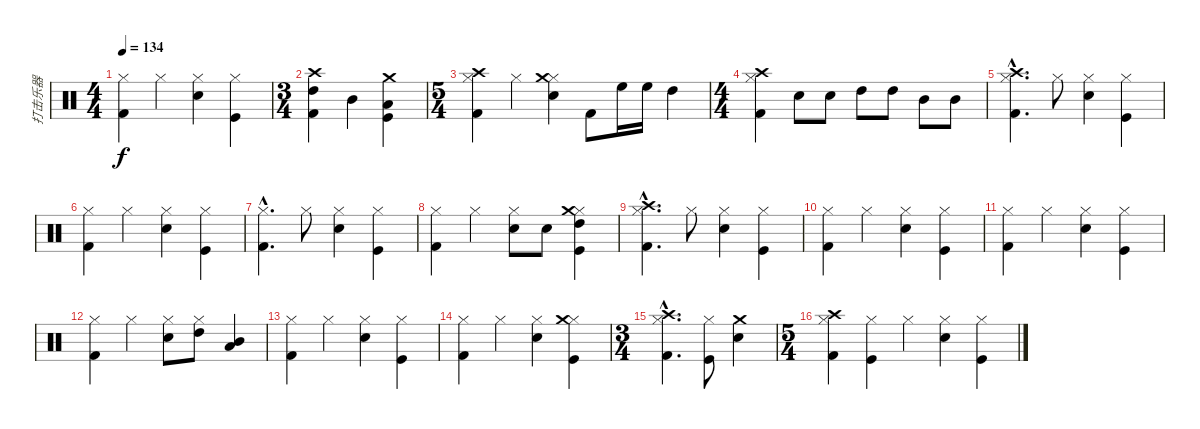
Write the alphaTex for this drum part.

\track ("打击乐器" "打击乐器") {instrument percussion}
\staff {score}
\articulation defaults
\ts (4 4)
\tempo 134
\clef neutral
\ks c
("Hi-Hat (closed)" "Kick (hit) 2").4{dy f} "Hi-Hat (closed)".4 ("Hi-Hat (closed)" "Snare (hit) 2").4 ("Kick (hit)" "Hi-Hat (closed)").4 |
\ts (3 4)
("High Tom (hit)" "Kick (hit) 2" "Crash high (hit)").4 "Mid Tom (hit)".4 ("Low Tom (hit)" "Kick (hit)" "Crash medium (hit)").4 |
\ts (5 4)
("Hi-Hat (closed)" "Kick (hit) 2" "Crash high (hit)").4 "Hi-Hat (closed)".4 ("Hi-Hat (closed)" "Snare (hit) 2" "Crash medium (hit)").4 "Kick (hit) 2".8 "High Floor Tom (hit)".16 "High Floor Tom (hit)".16 "High Tom (hit)".4 |
\ts (4 4)
("Hi-Hat (closed)" "Kick (hit) 2" "Crash high (hit)").4 "Snare (hit) 2".8 "Snare (hit) 2".8 "High Tom (hit)".8 "High Tom (hit)".8 "Mid Tom (hit)".8 "Mid Tom (hit)".8 |
("Kick (hit) 2"{hac} "Hi-Hat (closed)"{hac} "Crash high (hit)"{hac}).4{d} "Hi-Hat (closed)".8 ("Snare (hit) 2" "Hi-Hat (closed)").4 ("Hi-Hat (closed)" "Kick (hit)").4 |
("Hi-Hat (closed)" "Kick (hit) 2").4 "Hi-Hat (closed)".4 ("Hi-Hat (closed)" "Snare (hit) 2").4 ("Kick (hit)" "Hi-Hat (closed)").4 |
("Hi-Hat (closed)"{hac} "Kick (hit) 2"{hac}).4{d} "Hi-Hat (closed)".8 ("Hi-Hat (closed)" "Snare (hit) 2").4 ("Kick (hit)" "Hi-Hat (closed)").4 |
("Hi-Hat (closed)" "Kick (hit) 2").4 "Hi-Hat (closed)".4 ("Hi-Hat (closed)" "Snare (hit) 2").8 "Snare (hit) 2".8 ("Kick (hit)" "Hi-Hat (closed)" "High Tom (hit)" "Crash medium (hit)").4 |
("Kick (hit) 2"{hac} "Hi-Hat (closed)"{hac} "Crash high (hit)"{hac}).4{d} "Hi-Hat (closed)".8 ("Snare (hit) 2" "Hi-Hat (closed)").4 ("Hi-Hat (closed)" "Kick (hit)").4 |
("Hi-Hat (closed)" "Kick (hit) 2").4 "Hi-Hat (closed)".4 ("Hi-Hat (closed)" "Snare (hit) 2").4 ("Kick (hit)" "Hi-Hat (closed)").4 |
("Hi-Hat (closed)" "Kick (hit) 2").4 "Hi-Hat (closed)".4 ("Hi-Hat (closed)" "Snare (hit) 2").4 ("Kick (hit)" "Hi-Hat (closed)").4 |
("Kick (hit) 2" "Hi-Hat (closed)").4 "Hi-Hat (closed)".4 ("Snare (hit) 2" "Hi-Hat (closed)").8 ("High Tom (hit)" "Hi-Hat (closed)").8 ("Mid Tom (hit)" "Low Tom (hit)").4 |
("Kick (hit) 2" "Hi-Hat (closed)").4 "Hi-Hat (closed)".4 ("Snare (hit) 2" "Hi-Hat (closed)").4 ("Hi-Hat (closed)" "Kick (hit)").4 |
("Kick (hit) 2" "Hi-Hat (closed)").4 "Hi-Hat (closed)".4 ("Snare (hit) 2" "Hi-Hat (closed)").4 ("Hi-Hat (closed)" "Kick (hit)" "Crash medium (hit)").4 |
\ts (3 4)
("Kick (hit) 2"{hac} "Hi-Hat (closed)"{hac} "Crash high (hit)"{hac}).4{d} ("Kick (hit)" "Hi-Hat (closed)").8 ("Snare (hit) 2" "Crash medium (hit)").4 |
\ts (5 4)
("Hi-Hat (closed)" "Kick (hit) 2" "Crash high (hit)").4 ("Hi-Hat (closed)" "Kick (hit)").4 "Hi-Hat (closed)".4 ("Hi-Hat (closed)" "Snare (hit) 2").4 ("Hi-Hat (closed)" "Kick (hit)").4
